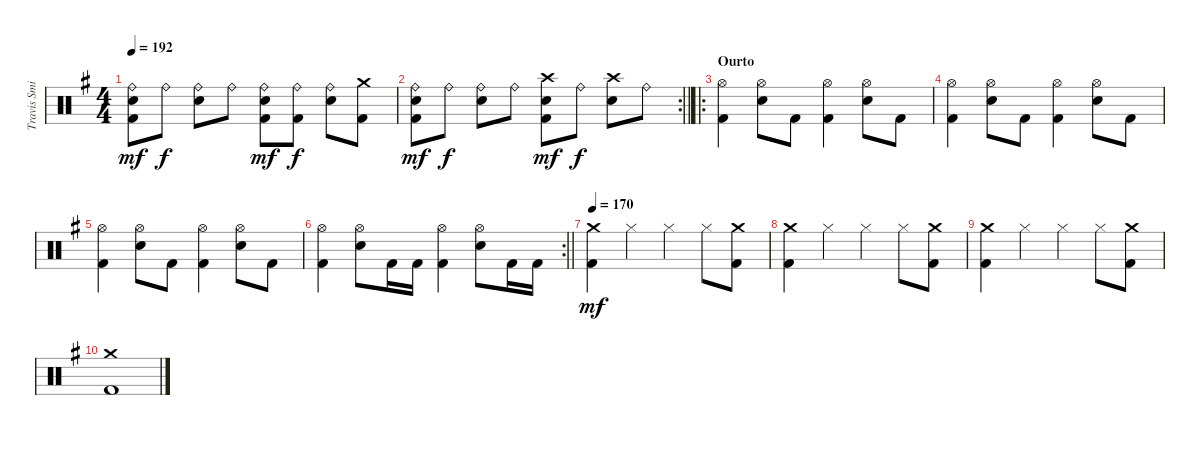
\track ("Travis Smith" "Travis Smi") {instrument percussion}
\staff {score}
\articulation defaults
\ts (4 4)
\tempo 192
\clef neutral
\ks eminor
("Snare (hit) 2" "Ride (bell)" "Kick (hit) 2").8{dy mf} "Ride (bell)".8{dy f} ("Ride (bell)" "Snare (hit) 2").8 "Ride (bell)".8 ("Snare (hit) 2" "Ride (bell)" "Kick (hit) 2").8{dy mf} ("Ride (bell)" "Kick (hit) 2").8{dy f} ("Ride (bell)" "Snare (hit) 2").8 ("Crash medium (hit)" "Kick (hit) 2").8 |
\rc 2
\barLineRight lightlight
("Snare (hit) 2" "Ride (bell)" "Kick (hit) 2").8{dy mf} "Ride (bell)".8{dy f} ("Ride (bell)" "Snare (hit) 2").8 "Ride (bell)".8 ("Snare (hit) 2" "Crash high (hit)" "Kick (hit) 2").8{dy mf} "Ride (bell)".8{dy f} ("Crash high (hit)" "Snare (hit) 2").8 "Ride (bell)".8 |
\ro
\section ("" "Ourto")
("Hi-Hat (open)" "Kick (hit) 2").4 ("Hi-Hat (open)" "Snare (hit) 2").8 "Kick (hit) 2".8 ("Hi-Hat (open)" "Kick (hit) 2").4 ("Hi-Hat (open)" "Snare (hit) 2").8 "Kick (hit) 2".8 |
("Hi-Hat (open)" "Kick (hit) 2").4 ("Hi-Hat (open)" "Snare (hit) 2").8 "Kick (hit) 2".8 ("Hi-Hat (open)" "Kick (hit) 2").4 ("Hi-Hat (open)" "Snare (hit) 2").8 "Kick (hit) 2".8 |
("Hi-Hat (open)" "Kick (hit) 2").4 ("Hi-Hat (open)" "Snare (hit) 2").8 "Kick (hit) 2".8 ("Hi-Hat (open)" "Kick (hit) 2").4 ("Hi-Hat (open)" "Snare (hit) 2").8 "Kick (hit) 2".8 |
\rc 2
\barLineRight lightlight
("Hi-Hat (open)" "Kick (hit) 2").4 ("Hi-Hat (open)" "Snare (hit) 2").8 "Kick (hit) 2".16 "Kick (hit) 2".16 ("Hi-Hat (open)" "Kick (hit) 2").4 ("Hi-Hat (open)" "Snare (hit) 2").8 "Kick (hit) 2".16 "Kick (hit) 2".16 |
\tempo 170
("Crash medium (hit)" "Kick (hit) 2").4{dy mf} "Hi-Hat (closed)".4 "Hi-Hat (closed)".4 "Hi-Hat (closed)".8 ("Crash medium (hit)" "Kick (hit) 2").8 |
("Crash medium (hit)" "Kick (hit) 2").4 "Hi-Hat (closed)".4 "Hi-Hat (closed)".4 "Hi-Hat (closed)".8 ("Crash medium (hit)" "Kick (hit) 2").8 |
("Crash medium (hit)" "Kick (hit) 2").4 "Hi-Hat (closed)".4 "Hi-Hat (closed)".4 "Hi-Hat (closed)".8 ("Crash medium (hit)" "Kick (hit) 2").8 |
("Crash medium (hit)" "Kick (hit) 2").1
